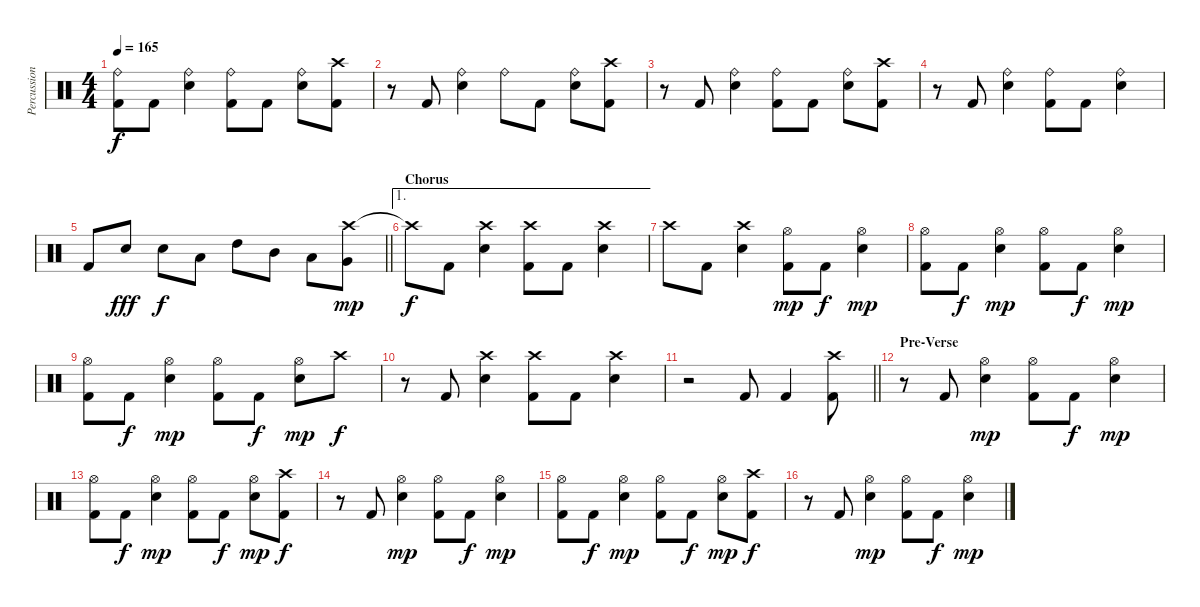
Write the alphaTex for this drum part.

\track ("Percussion" "Percussion") {instrument percussion}
\staff {score}
\articulation defaults
\ts (4 4)
\tempo 165
\clef neutral
\ks c
("Ride (bell)" "Kick (hit) 2").8{dy f} "Kick (hit) 2".8 ("Ride (bell)" "Electric Snare (hit)").4 ("Ride (bell)" "Kick (hit) 2").8 "Kick (hit) 2".8 ("Ride (bell)" "Electric Snare (hit)").8 ("Crash high (hit)" "Kick (hit) 2").8 |
r.8 "Kick (hit) 2".8 ("Ride (bell)" "Electric Snare (hit)").4 "Ride (bell)".8 "Kick (hit) 2".8 ("Ride (bell)" "Electric Snare (hit)").8 ("Crash high (hit)" "Kick (hit) 2").8 |
r.8 "Kick (hit) 2".8 ("Ride (bell)" "Electric Snare (hit)").4 ("Ride (bell)" "Kick (hit) 2").8 "Kick (hit) 2".8 ("Ride (bell)" "Electric Snare (hit)").8 ("Crash high (hit)" "Kick (hit) 2").8 |
r.8 "Kick (hit) 2".8 ("Ride (bell)" "Electric Snare (hit)").4 ("Ride (bell)" "Kick (hit) 2").8 "Kick (hit) 2".8 ("Ride (bell)" "Electric Snare (hit)").4 |
\barLineRight lightlight "Kick (hit) 2".8 "Electric Snare (hit)".8{dy fff} "Electric Snare (hit)".8{dy f} "Low Tom (hit)".8 "High Tom (hit)".8 "Mid Tom (hit)".8 "Low Tom (hit)".8
("Crash high (hit)" "Very Low Tom (hit)").8{dy mp} |
\ae 1
\section ("" "Chorus")
"Crash high (hit)"{t}.8{dy f} "Kick (hit) 2".8 ("Crash high (hit)" "Electric Snare (hit)").4 ("Crash high (hit)" "Kick (hit) 2").8 "Kick (hit) 2".8 ("Crash high (hit)" "Electric Snare (hit)").4 |
"Crash high (hit)".8 "Kick (hit) 2".8 ("Crash high (hit)" "Electric Snare (hit)").4 ("Hi-Hat (open)" "Kick (hit) 2").8{dy mp} "Kick (hit) 2".8{dy f} ("Hi-Hat (open)" "Electric Snare (hit)").4{dy mp} |
("Hi-Hat (open)" "Kick (hit) 2").8 "Kick (hit) 2".8{dy f} ("Hi-Hat (open)" "Electric Snare (hit)").4{dy mp} ("Hi-Hat (open)" "Kick (hit) 2").8 "Kick (hit) 2".8{dy f} ("Hi-Hat (open)" "Electric Snare (hit)").4{dy mp} |
("Hi-Hat (open)" "Kick (hit) 2").8 "Kick (hit) 2".8{dy f} ("Hi-Hat (open)" "Electric Snare (hit)").4{dy mp} ("Hi-Hat (open)" "Kick (hit) 2").8 "Kick (hit) 2".8{dy f} ("Hi-Hat (open)" "Electric Snare (hit)").8{dy mp} "Crash high (hit)".8{dy f} |
r.8 "Kick (hit) 2".8 ("Crash high (hit)" "Electric Snare (hit)").4 ("Crash high (hit)" "Kick (hit) 2").8 "Kick (hit) 2".8 ("Crash high (hit)" "Electric Snare (hit)").4 |
\barLineRight lightlight
r.2 "Kick (hit) 2".8 "Kick (hit) 2".4 ("Crash high (hit)" "Kick (hit) 2").8 |
\section ("" "Pre-Verse")
r.8 "Kick (hit) 2".8 ("Hi-Hat (open)" "Electric Snare (hit)").4{dy mp} ("Hi-Hat (open)" "Kick (hit) 2").8 "Kick (hit) 2".8{dy f} ("Hi-Hat (open)" "Electric Snare (hit)").4{dy mp} |
("Hi-Hat (open)" "Kick (hit) 2").8 "Kick (hit) 2".8{dy f} ("Hi-Hat (open)" "Electric Snare (hit)").4{dy mp} ("Hi-Hat (open)" "Kick (hit) 2").8 "Kick (hit) 2".8{dy f} ("Hi-Hat (open)" "Electric Snare (hit)").8{dy mp} ("Crash high (hit)" "Kick (hit) 2").8{dy f} |
r.8 "Kick (hit) 2".8 ("Hi-Hat (open)" "Electric Snare (hit)").4{dy mp} ("Hi-Hat (open)" "Kick (hit) 2").8 "Kick (hit) 2".8{dy f} ("Hi-Hat (open)" "Electric Snare (hit)").4{dy mp} |
("Hi-Hat (open)" "Kick (hit) 2").8 "Kick (hit) 2".8{dy f} ("Hi-Hat (open)" "Electric Snare (hit)").4{dy mp} ("Hi-Hat (open)" "Kick (hit) 2").8 "Kick (hit) 2".8{dy f} ("Hi-Hat (open)" "Electric Snare (hit)").8{dy mp} ("Crash high (hit)" "Kick (hit) 2").8{dy f} |
r.8 "Kick (hit) 2".8 ("Hi-Hat (open)" "Electric Snare (hit)").4{dy mp} ("Hi-Hat (open)" "Kick (hit) 2").8 "Kick (hit) 2".8{dy f} ("Hi-Hat (open)" "Electric Snare (hit)").4{dy mp}
